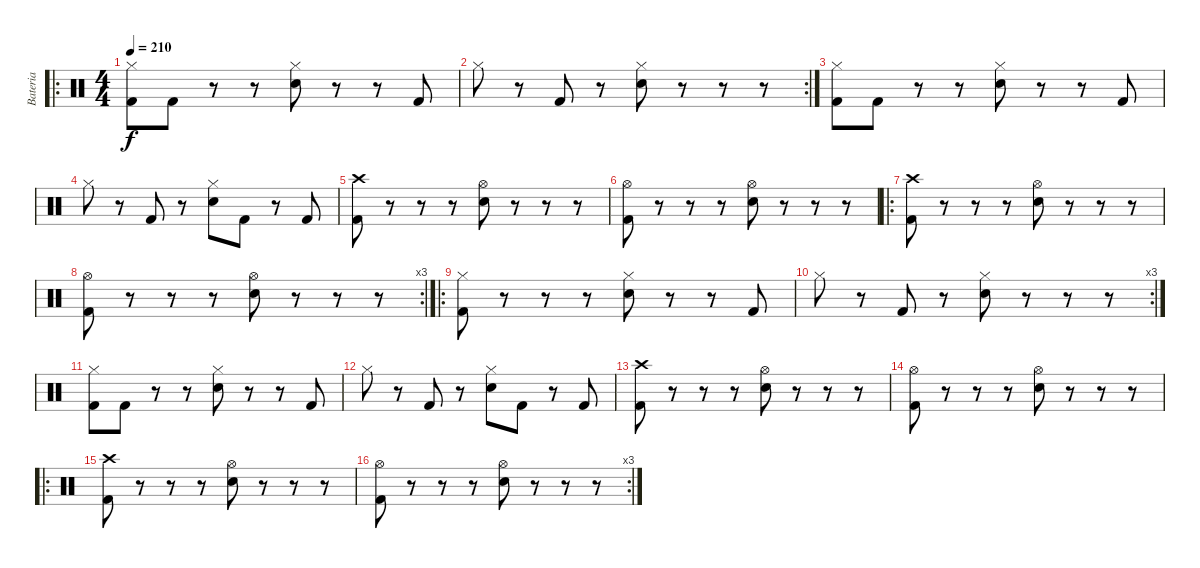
\track ("Bateria" "Bateria") {instrument percussion}
\staff {score}
\articulation defaults
\ro
\ts (4 4)
\tempo 210
\clef neutral
\ks c
("Hi-Hat (closed)" "Kick (hit) 2").8{dy f} "Kick (hit) 2".8 r.8 r.8 ("Hi-Hat (closed)" "Snare (hit) 2").8 r.8 r.8 "Kick (hit) 2".8 |
\rc 2 "Hi-Hat (closed)".8
r.8 "Kick (hit) 2".8 r.8 ("Hi-Hat (closed)" "Snare (hit) 2").8 r.8 r.8 r.8 |
("Hi-Hat (closed)" "Kick (hit) 2").8 "Kick (hit) 2".8 r.8 r.8 ("Hi-Hat (closed)" "Snare (hit) 2").8 r.8 r.8 "Kick (hit) 2".8 |
"Hi-Hat (closed)".8 r.8 "Kick (hit) 2".8 r.8 ("Hi-Hat (closed)" "Snare (hit) 2").8 "Kick (hit) 2".8 r.8 "Kick (hit) 2".8 |
("Crash high (hit)" "Kick (hit) 2").8 r.8 r.8 r.8 ("Hi-Hat (open)" "Snare (hit) 2").8 r.8 r.8 r.8 |
("Hi-Hat (open)" "Kick (hit) 2").8 r.8 r.8 r.8 ("Hi-Hat (open)" "Snare (hit) 2").8 r.8 r.8 r.8 |
\ro
("Crash high (hit)" "Kick (hit) 2").8 r.8 r.8 r.8 ("Hi-Hat (open)" "Snare (hit) 2").8 r.8 r.8 r.8 |
\rc 3
("Hi-Hat (open)" "Kick (hit) 2").8 r.8 r.8 r.8 ("Hi-Hat (open)" "Snare (hit) 2").8 r.8 r.8 r.8 |
\ro
("Hi-Hat (closed)" "Kick (hit) 2").8 r.8 r.8 r.8 ("Hi-Hat (closed)" "Snare (hit) 2").8 r.8 r.8 "Kick (hit) 2".8 |
\rc 3 "Hi-Hat (closed)".8
r.8 "Kick (hit) 2".8 r.8 ("Hi-Hat (closed)" "Snare (hit) 2").8 r.8 r.8 r.8 |
("Hi-Hat (closed)" "Kick (hit) 2").8 "Kick (hit) 2".8 r.8 r.8 ("Hi-Hat (closed)" "Snare (hit) 2").8 r.8 r.8 "Kick (hit) 2".8 |
"Hi-Hat (closed)".8 r.8 "Kick (hit) 2".8 r.8 ("Hi-Hat (closed)" "Snare (hit) 2").8 "Kick (hit) 2".8 r.8 "Kick (hit) 2".8 |
("Crash high (hit)" "Kick (hit) 2").8 r.8 r.8 r.8 ("Hi-Hat (open)" "Snare (hit) 2").8 r.8 r.8 r.8 |
("Hi-Hat (open)" "Kick (hit) 2").8 r.8 r.8 r.8 ("Hi-Hat (open)" "Snare (hit) 2").8 r.8 r.8 r.8 |
\ro
("Crash high (hit)" "Kick (hit) 2").8 r.8 r.8 r.8 ("Hi-Hat (open)" "Snare (hit) 2").8 r.8 r.8 r.8 |
\rc 3
("Hi-Hat (open)" "Kick (hit) 2").8 r.8 r.8 r.8 ("Hi-Hat (open)" "Snare (hit) 2").8 r.8 r.8 r.8
